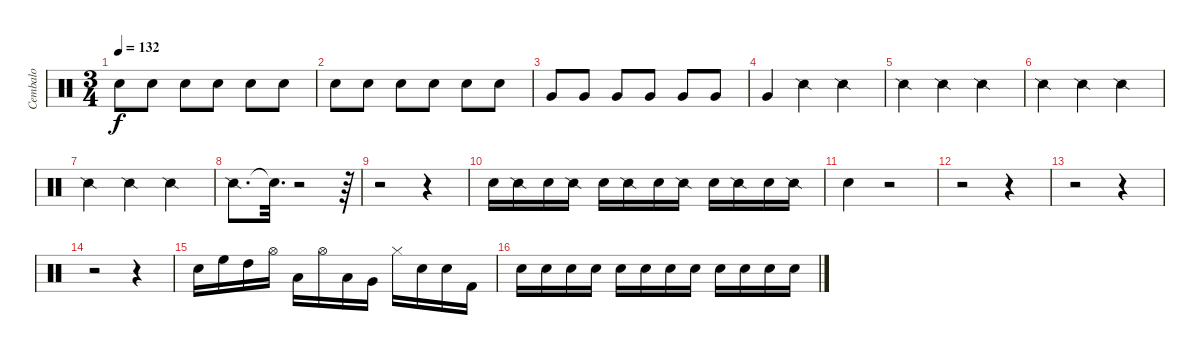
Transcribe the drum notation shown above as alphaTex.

\track ("Cembalo" "Cembalo") {instrument percussion}
\staff {score}
\articulation defaults
\ts (3 4)
\tempo 132
\clef neutral
\ks c "Hand Clap (hit)".8{dy f} "Hand Clap (hit)".8 "Hand Clap (hit)".8 "Hand Clap (hit)".8 "Hand Clap (hit)".8 "Hand Clap (hit)".8
|
"Hand Clap (hit)".8 "Hand Clap (hit)".8 "Hand Clap (hit)".8 "Hand Clap (hit)".8 "Hand Clap (hit)".8 "Hand Clap (hit)".8 |
"Very Low Tom (hit)".8 "Very Low Tom (hit)".8 "Very Low Tom (hit)".8 "Very Low Tom (hit)".8 "Very Low Tom (hit)".8 "Very Low Tom (hit)".8 |
"Very Low Tom (hit)".4 "Snare (side stick) 2".4 "Snare (side stick) 2".4 |
"Snare (side stick) 2".4 "Snare (side stick) 2".4 "Snare (side stick) 2".4 |
"Snare (side stick) 2".4 "Snare (side stick) 2".4 "Snare (side stick) 2".4 |
"Snare (side stick) 2".4 "Snare (side stick) 2".4 "Snare (side stick) 2".4 |
"Snare (side stick) 2".8{d} "Snare (hit)"{t}.32{d} r.2 r.64 |
r.2 r.4 |
"Metronome (bell)".16 "Snare (side stick) 2".16 "Metronome (bell)".16 "Snare (side stick) 2".16 "Metronome (bell)".16 "Snare (side stick) 2".16 "Metronome (bell)".16 "Snare (side stick) 2".16 "Metronome (bell)".16 "Snare (side stick) 2".16 "Metronome (bell)".16 "Snare (side stick) 2".16 |
"Snare (hit) 2".4 r.2 |
r.2 r.4 |
r.2 r.4 |
r.2 r.4 |
"Snare (hit) 2".16 "High Floor Tom (hit)".16 "High Tom (hit)".16 "Hi-Hat (open)".16 "Low Tom (hit)".16 "Hi-Hat (open)".16 "Low Tom (hit)".16 "Very Low Tom (hit)".16 "Hi-Hat (closed)".16 "Electric Snare (hit)".16 "Snare (hit) 2".16 "Kick (hit) 2".16 |
"Metronome (bell)".16 "Metronome (bell)".16 "Metronome (bell)".16 "Metronome (bell)".16 "Metronome (bell)".16 "Metronome (bell)".16 "Metronome (bell)".16 "Metronome (bell)".16 "Metronome (bell)".16 "Metronome (bell)".16 "Metronome (bell)".16 "Metronome (bell)".16
